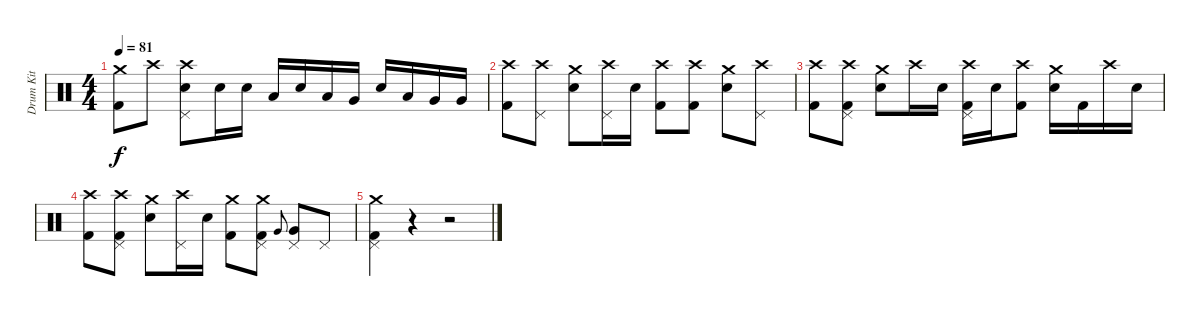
\track ("Drum Kit" "Drum Kit") {instrument percussion}
\staff {score}
\articulation defaults
\ts (4 4)
\tempo 81
\clef neutral
\ks c
("Crash medium (hit)" "Kick (hit) 2").8{dy f} "Crash high (hit)".8 ("Crash high (hit)" "Pedal Hi-Hat (hit)" "Snare (hit) 2").8 "Snare (hit) 2".16 "Snare (hit) 2".16 "Low Tom (hit)".16 "Snare (hit) 2".16 "Low Tom (hit)".16 "Very Low Tom (hit)".16 "Snare (hit) 2".16 "Low Tom (hit)".16 "Very Low Tom (hit)".16 "Very Low Tom (hit)".16 |
("Crash high (hit)" "Kick (hit) 2").8 ("Crash high (hit)" "Pedal Hi-Hat (hit)").8 ("Crash medium (hit)" "Snare (hit) 2").8 ("Crash high (hit)" "Pedal Hi-Hat (hit)").16 "Snare (hit) 2".16 ("Crash high (hit)" "Kick (hit) 2").8 ("Crash high (hit)" "Kick (hit) 2").8 ("Crash medium (hit)" "Snare (hit) 2").8 ("Crash high (hit)" "Pedal Hi-Hat (hit)").8 |
("Crash high (hit)" "Kick (hit) 2").8 ("Crash high (hit)" "Pedal Hi-Hat (hit)" "Kick (hit) 2").8 ("Crash medium (hit)" "Snare (hit) 2").8 "Crash high (hit)".16 "Snare (hit) 2".16 ("Crash high (hit)" "Pedal Hi-Hat (hit)" "Kick (hit) 2").16 "Snare (hit) 2".16 ("Crash high (hit)" "Kick (hit) 2").8 ("Crash medium (hit)" "Snare (hit) 2").16 "Kick (hit) 2".16 "Crash high (hit)".16 "Snare (hit) 2".16 |
("Crash high (hit)" "Kick (hit) 2").8 ("Crash high (hit)" "Pedal Hi-Hat (hit)" "Kick (hit) 2").8 ("Crash medium (hit)" "Snare (hit) 2").8 ("Crash high (hit)" "Pedal Hi-Hat (hit)").16 "Snare (hit) 2".16 ("Crash medium (hit)" "Kick (hit) 2").8 ("Crash medium (hit)" "Pedal Hi-Hat (hit)" "Kick (hit) 2").8 "Very Low Tom (hit)".8{gr onbeat} ("Pedal Hi-Hat (hit)" "Very Low Tom (hit)").8 "Pedal Hi-Hat (hit)".8 |
("Crash medium (hit)" "Pedal Hi-Hat (hit)" "Kick (hit) 2").4 r.4 r.2
